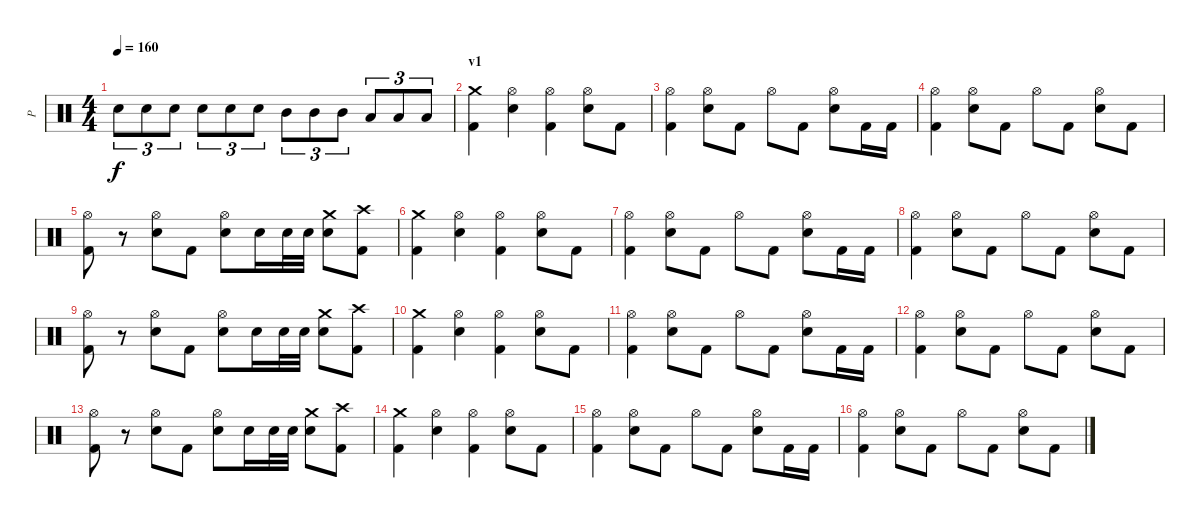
\track ("P" "P") {instrument percussion}
\staff {score}
\articulation defaults
\ts (4 4)
\tempo 160
\clef neutral
\ks c "Electric Snare (hit)".8{tu (3 2) dy f} "Electric Snare (hit)".8{tu (3 2)} "Electric Snare (hit)".8{tu (3 2)} "Electric Snare (hit)".8{tu (3 2)} "Electric Snare (hit)".8{tu (3 2)} "Electric Snare (hit)".8{tu (3 2)} "Mid Tom (hit)".8{tu (3 2)} "Mid Tom (hit)".8{tu (3 2)} "Mid Tom (hit)".8{tu (3 2)} "Low Tom (hit)".8{tu (3 2)} "Low Tom (hit)".8{tu (3 2)} "Low Tom (hit)".8{tu (3 2)}
|
\section ("" "v1")
("Crash medium (hit)" "Kick (hit) 2").4 ("Hi-Hat (open)" "Electric Snare (hit)").4 ("Hi-Hat (open)" "Kick (hit) 2").4 ("Hi-Hat (open)" "Electric Snare (hit)").8 "Kick (hit) 2".8 |
("Hi-Hat (open)" "Kick (hit) 2").4 ("Hi-Hat (open)" "Electric Snare (hit)").8 "Kick (hit) 2".8 "Hi-Hat (open)".8 "Kick (hit) 2".8 ("Hi-Hat (open)" "Electric Snare (hit)").8 "Kick (hit) 2".16 "Kick (hit) 2".16 |
("Hi-Hat (open)" "Kick (hit) 2").4 ("Hi-Hat (open)" "Electric Snare (hit)").8 "Kick (hit) 2".8 "Hi-Hat (open)".8 "Kick (hit) 2".8 ("Hi-Hat (open)" "Electric Snare (hit)").8 "Kick (hit) 2".8 |
("Hi-Hat (open)" "Kick (hit) 2").8 r.8 ("Hi-Hat (open)" "Electric Snare (hit)").8 "Kick (hit) 2".8 ("Hi-Hat (open)" "Electric Snare (hit)").8 "Electric Snare (hit)".16 "Electric Snare (hit)".32 "Electric Snare (hit)".32 ("Crash medium (hit)" "Electric Snare (hit)").8 ("Crash high (hit)" "Kick (hit) 2").8 |
("Crash medium (hit)" "Kick (hit) 2").4 ("Hi-Hat (open)" "Electric Snare (hit)").4 ("Hi-Hat (open)" "Kick (hit) 2").4 ("Hi-Hat (open)" "Electric Snare (hit)").8 "Kick (hit) 2".8 |
("Hi-Hat (open)" "Kick (hit) 2").4 ("Hi-Hat (open)" "Electric Snare (hit)").8 "Kick (hit) 2".8 "Hi-Hat (open)".8 "Kick (hit) 2".8 ("Hi-Hat (open)" "Electric Snare (hit)").8 "Kick (hit) 2".16 "Kick (hit) 2".16 |
("Hi-Hat (open)" "Kick (hit) 2").4 ("Hi-Hat (open)" "Electric Snare (hit)").8 "Kick (hit) 2".8 "Hi-Hat (open)".8 "Kick (hit) 2".8 ("Hi-Hat (open)" "Electric Snare (hit)").8 "Kick (hit) 2".8 |
("Hi-Hat (open)" "Kick (hit) 2").8 r.8 ("Hi-Hat (open)" "Electric Snare (hit)").8 "Kick (hit) 2".8 ("Hi-Hat (open)" "Electric Snare (hit)").8 "Electric Snare (hit)".16 "Electric Snare (hit)".32 "Electric Snare (hit)".32 ("Crash medium (hit)" "Electric Snare (hit)").8 ("Crash high (hit)" "Kick (hit) 2").8 |
("Crash medium (hit)" "Kick (hit) 2").4 ("Hi-Hat (open)" "Electric Snare (hit)").4 ("Hi-Hat (open)" "Kick (hit) 2").4 ("Hi-Hat (open)" "Electric Snare (hit)").8 "Kick (hit) 2".8 |
("Hi-Hat (open)" "Kick (hit) 2").4 ("Hi-Hat (open)" "Electric Snare (hit)").8 "Kick (hit) 2".8 "Hi-Hat (open)".8 "Kick (hit) 2".8 ("Hi-Hat (open)" "Electric Snare (hit)").8 "Kick (hit) 2".16 "Kick (hit) 2".16 |
("Hi-Hat (open)" "Kick (hit) 2").4 ("Hi-Hat (open)" "Electric Snare (hit)").8 "Kick (hit) 2".8 "Hi-Hat (open)".8 "Kick (hit) 2".8 ("Hi-Hat (open)" "Electric Snare (hit)").8 "Kick (hit) 2".8 |
("Hi-Hat (open)" "Kick (hit) 2").8 r.8 ("Hi-Hat (open)" "Electric Snare (hit)").8 "Kick (hit) 2".8 ("Hi-Hat (open)" "Electric Snare (hit)").8 "Electric Snare (hit)".16 "Electric Snare (hit)".32 "Electric Snare (hit)".32 ("Crash medium (hit)" "Electric Snare (hit)").8 ("Crash high (hit)" "Kick (hit) 2").8 |
("Crash medium (hit)" "Kick (hit) 2").4 ("Hi-Hat (open)" "Electric Snare (hit)").4 ("Hi-Hat (open)" "Kick (hit) 2").4 ("Hi-Hat (open)" "Electric Snare (hit)").8 "Kick (hit) 2".8 |
("Hi-Hat (open)" "Kick (hit) 2").4 ("Hi-Hat (open)" "Electric Snare (hit)").8 "Kick (hit) 2".8 "Hi-Hat (open)".8 "Kick (hit) 2".8 ("Hi-Hat (open)" "Electric Snare (hit)").8 "Kick (hit) 2".16 "Kick (hit) 2".16 |
("Hi-Hat (open)" "Kick (hit) 2").4 ("Hi-Hat (open)" "Electric Snare (hit)").8 "Kick (hit) 2".8 "Hi-Hat (open)".8 "Kick (hit) 2".8 ("Hi-Hat (open)" "Electric Snare (hit)").8 "Kick (hit) 2".8
